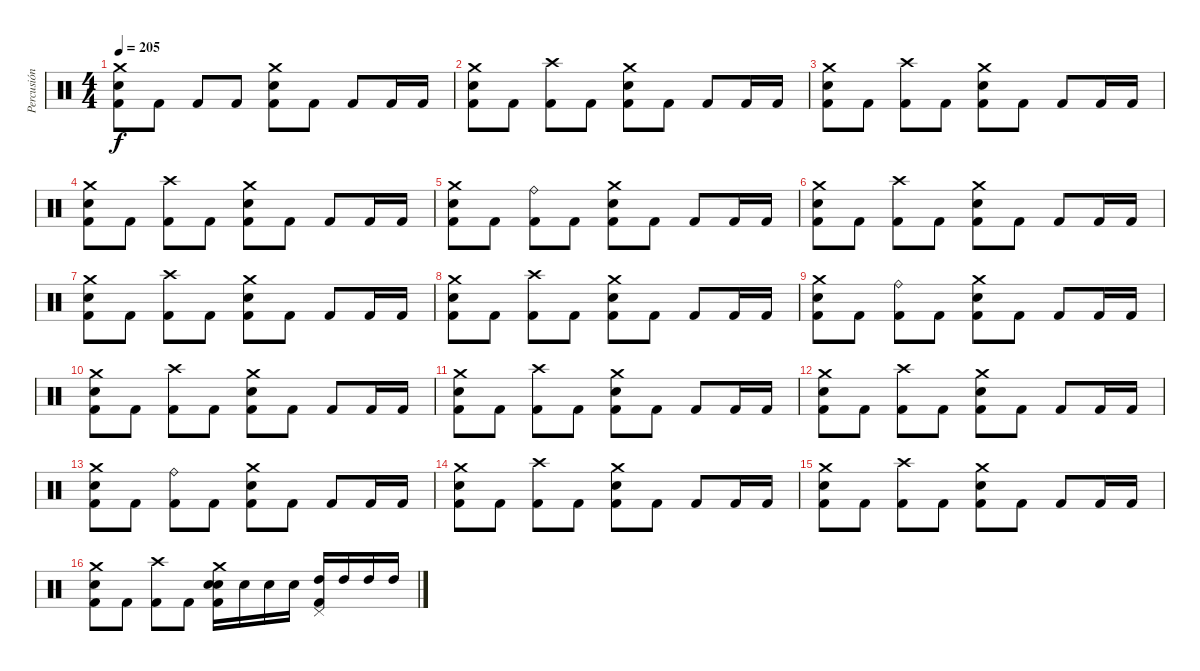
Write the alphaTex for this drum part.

\track ("Percusión" "Percusión") {instrument percussion}
\staff {score}
\articulation defaults
\ts (4 4)
\tempo 205
\clef neutral
\ks c
("Crash medium (hit)" "Snare (hit) 2" "Kick (hit) 2").8{dy f} "Kick (hit) 2".8 "Kick (hit) 2".8 "Kick (hit) 2".8 ("Crash medium (hit)" "Snare (hit) 2" "Kick (hit) 2").8 "Kick (hit) 2".8 "Kick (hit) 2".8 "Kick (hit) 2".16 "Kick (hit) 2".16 |
("Crash medium (hit)" "Snare (hit) 2" "Kick (hit) 2").8 "Kick (hit) 2".8 ("Crash high (hit)" "Kick (hit) 2").8 "Kick (hit) 2".8 ("Crash medium (hit)" "Snare (hit) 2" "Kick (hit) 2").8 "Kick (hit) 2".8 "Kick (hit) 2".8 "Kick (hit) 2".16 "Kick (hit) 2".16 |
("Crash medium (hit)" "Snare (hit) 2" "Kick (hit) 2").8 "Kick (hit) 2".8 ("Crash high (hit)" "Kick (hit) 2").8 "Kick (hit) 2".8 ("Crash medium (hit)" "Snare (hit) 2" "Kick (hit) 2").8 "Kick (hit) 2".8 "Kick (hit) 2".8 "Kick (hit) 2".16 "Kick (hit) 2".16 |
("Crash medium (hit)" "Snare (hit) 2" "Kick (hit) 2").8 "Kick (hit) 2".8 ("Crash high (hit)" "Kick (hit) 2").8 "Kick (hit) 2".8 ("Crash medium (hit)" "Snare (hit) 2" "Kick (hit) 2").8 "Kick (hit) 2".8 "Kick (hit) 2".8 "Kick (hit) 2".16 "Kick (hit) 2".16 |
("Crash medium (hit)" "Snare (hit) 2" "Kick (hit) 2").8 "Kick (hit) 2".8 ("Ride (bell)" "Kick (hit) 2").8 "Kick (hit) 2".8 ("Crash medium (hit)" "Snare (hit) 2" "Kick (hit) 2").8 "Kick (hit) 2".8 "Kick (hit) 2".8 "Kick (hit) 2".16 "Kick (hit) 2".16 |
("Crash medium (hit)" "Snare (hit) 2" "Kick (hit) 2").8 "Kick (hit) 2".8 ("Crash high (hit)" "Kick (hit) 2").8 "Kick (hit) 2".8 ("Crash medium (hit)" "Snare (hit) 2" "Kick (hit) 2").8 "Kick (hit) 2".8 "Kick (hit) 2".8 "Kick (hit) 2".16 "Kick (hit) 2".16 |
("Crash medium (hit)" "Snare (hit) 2" "Kick (hit) 2").8 "Kick (hit) 2".8 ("Crash high (hit)" "Kick (hit) 2").8 "Kick (hit) 2".8 ("Crash medium (hit)" "Snare (hit) 2" "Kick (hit) 2").8 "Kick (hit) 2".8 "Kick (hit) 2".8 "Kick (hit) 2".16 "Kick (hit) 2".16 |
("Crash medium (hit)" "Snare (hit) 2" "Kick (hit) 2").8 "Kick (hit) 2".8 ("Crash high (hit)" "Kick (hit) 2").8 "Kick (hit) 2".8 ("Crash medium (hit)" "Snare (hit) 2" "Kick (hit) 2").8 "Kick (hit) 2".8 "Kick (hit) 2".8 "Kick (hit) 2".16 "Kick (hit) 2".16 |
("Crash medium (hit)" "Snare (hit) 2" "Kick (hit) 2").8 "Kick (hit) 2".8 ("Ride (bell)" "Kick (hit) 2").8 "Kick (hit) 2".8 ("Crash medium (hit)" "Snare (hit) 2" "Kick (hit) 2").8 "Kick (hit) 2".8 "Kick (hit) 2".8 "Kick (hit) 2".16 "Kick (hit) 2".16 |
("Crash medium (hit)" "Snare (hit) 2" "Kick (hit) 2").8 "Kick (hit) 2".8 ("Crash high (hit)" "Kick (hit) 2").8 "Kick (hit) 2".8 ("Crash medium (hit)" "Snare (hit) 2" "Kick (hit) 2").8 "Kick (hit) 2".8 "Kick (hit) 2".8 "Kick (hit) 2".16 "Kick (hit) 2".16 |
("Crash medium (hit)" "Snare (hit) 2" "Kick (hit) 2").8 "Kick (hit) 2".8 ("Crash high (hit)" "Kick (hit) 2").8 "Kick (hit) 2".8 ("Crash medium (hit)" "Snare (hit) 2" "Kick (hit) 2").8 "Kick (hit) 2".8 "Kick (hit) 2".8 "Kick (hit) 2".16 "Kick (hit) 2".16 |
("Crash medium (hit)" "Snare (hit) 2" "Kick (hit) 2").8 "Kick (hit) 2".8 ("Crash high (hit)" "Kick (hit) 2").8 "Kick (hit) 2".8 ("Crash medium (hit)" "Snare (hit) 2" "Kick (hit) 2").8 "Kick (hit) 2".8 "Kick (hit) 2".8 "Kick (hit) 2".16 "Kick (hit) 2".16 |
("Crash medium (hit)" "Snare (hit) 2" "Kick (hit) 2").8 "Kick (hit) 2".8 ("Ride (bell)" "Kick (hit) 2").8 "Kick (hit) 2".8 ("Crash medium (hit)" "Snare (hit) 2" "Kick (hit) 2").8 "Kick (hit) 2".8 "Kick (hit) 2".8 "Kick (hit) 2".16 "Kick (hit) 2".16 |
("Crash medium (hit)" "Snare (hit) 2" "Kick (hit) 2").8 "Kick (hit) 2".8 ("Crash high (hit)" "Kick (hit) 2").8 "Kick (hit) 2".8 ("Crash medium (hit)" "Snare (hit) 2" "Kick (hit) 2").8 "Kick (hit) 2".8 "Kick (hit) 2".8 "Kick (hit) 2".16 "Kick (hit) 2".16 |
("Crash medium (hit)" "Snare (hit) 2" "Kick (hit) 2").8 "Kick (hit) 2".8 ("Crash high (hit)" "Kick (hit) 2").8 "Kick (hit) 2".8 ("Crash medium (hit)" "Snare (hit) 2" "Kick (hit) 2").8 "Kick (hit) 2".8 "Kick (hit) 2".8 "Kick (hit) 2".16 "Kick (hit) 2".16 |
("Crash medium (hit)" "Snare (hit) 2" "Kick (hit) 2").8 "Kick (hit) 2".8 ("Crash high (hit)" "Kick (hit) 2").8 "Kick (hit) 2".8 ("Crash medium (hit)" "Snare (hit) 2" "Snare (hit) 2" "Kick (hit) 2").16 "Snare (hit) 2".16 "Snare (hit) 2".16 "Snare (hit) 2".16 ("Pedal Hi-Hat (hit)" "High Tom (hit)" "Kick (hit) 2").16 "High Tom (hit)".16 "High Tom (hit)".16 "High Tom (hit)".16
